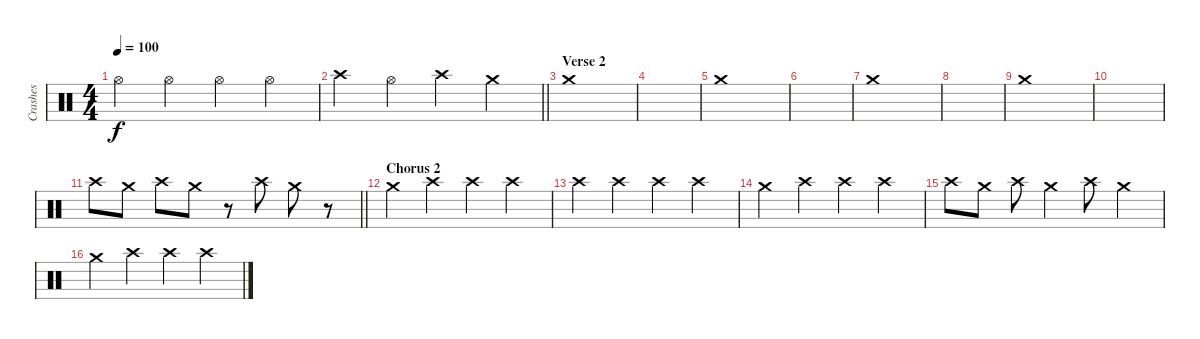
\track ("Crashes" "Crashes") {instrument percussion}
\staff {score}
\articulation defaults
\ts (4 4)
\tempo 100
\clef neutral
\ks c "Hi-Hat (open)".4{dy f} "Hi-Hat (open)".4 "Hi-Hat (open)".4 "Hi-Hat (open)".4
|
\barLineRight lightlight "Crash high (hit)".4 "Hi-Hat (open)".4 "Crash high (hit)".4 "Crash medium (hit)".4
|
\section ("" "Verse 2")
"Crash medium (hit)".1 |
|
"Crash medium (hit)".1 |
|
"Crash medium (hit)".1 |
|
"Crash medium (hit)".1 |
|
\barLineRight lightlight "Crash high (hit)".8 "Crash medium (hit)".8 "Crash high (hit)".8 "Crash medium (hit)".8
r.8 "Crash high (hit)".8 "Crash medium (hit)".8 r.8 |
\section ("" "Chorus 2")
"Crash medium (hit)".4 "Crash high (hit)".4 "Crash high (hit)".4 "Crash high (hit)".4 |
"Crash high (hit)".4 "Crash high (hit)".4 "Crash high (hit)".4 "Crash high (hit)".4 |
"Crash medium (hit)".4 "Crash high (hit)".4 "Crash high (hit)".4 "Crash high (hit)".4 |
"Crash high (hit)".8 "Crash medium (hit)".8 "Crash high (hit)".8 "Crash medium (hit)".4 "Crash high (hit)".8 "Crash medium (hit)".4 |
"Crash medium (hit)".4 "Crash high (hit)".4 "Crash high (hit)".4 "Crash high (hit)".4
